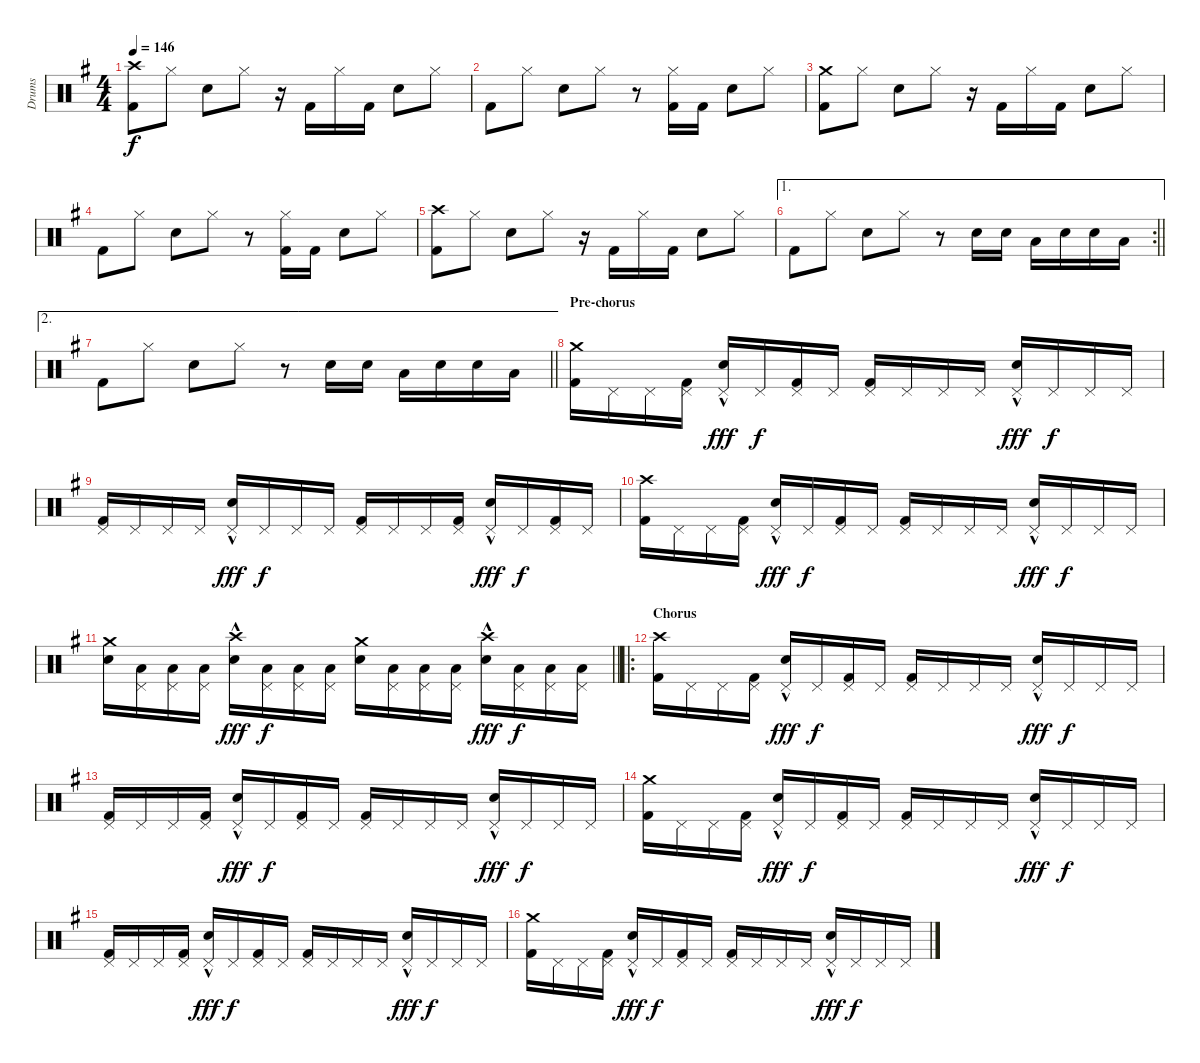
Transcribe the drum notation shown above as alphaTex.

\track ("Drums" "Drums") {instrument percussion}
\staff {score}
\articulation defaults
\ts (4 4)
\tempo 146
\clef neutral
\ks eminor
("Crash high (hit)" "Kick (hit) 2").8{dy f} "Hi-Hat (closed)".8 "Snare (hit) 2".8 "Hi-Hat (closed)".8 r.16 "Kick (hit) 2".16 "Hi-Hat (closed)".16 "Kick (hit) 2".16 "Snare (hit) 2".8 "Hi-Hat (closed)".8 |
"Kick (hit) 2".8 "Hi-Hat (closed)".8 "Snare (hit) 2".8 "Hi-Hat (closed)".8 r.8 ("Hi-Hat (closed)" "Kick (hit) 2").16 "Kick (hit) 2".16 "Snare (hit) 2".8 "Hi-Hat (closed)".8 |
("Crash medium (hit)" "Kick (hit) 2").8 "Hi-Hat (closed)".8 "Snare (hit) 2".8 "Hi-Hat (closed)".8 r.16 "Kick (hit) 2".16 "Hi-Hat (closed)".16 "Kick (hit) 2".16 "Snare (hit) 2".8 "Hi-Hat (closed)".8 |
"Kick (hit) 2".8 "Hi-Hat (closed)".8 "Snare (hit) 2".8 "Hi-Hat (closed)".8 r.8 ("Hi-Hat (closed)" "Kick (hit) 2").16 "Kick (hit) 2".16 "Snare (hit) 2".8 "Hi-Hat (closed)".8 |
("Crash high (hit)" "Kick (hit) 2").8 "Hi-Hat (closed)".8 "Snare (hit) 2".8 "Hi-Hat (closed)".8 r.16 "Kick (hit) 2".16 "Hi-Hat (closed)".16 "Kick (hit) 2".16 "Snare (hit) 2".8 "Hi-Hat (closed)".8 |
\ae 1
\rc 2
\barLineRight lightlight "Kick (hit) 2".8 "Hi-Hat (closed)".8 "Snare (hit) 2".8 "Hi-Hat (closed)".8
r.8 "Snare (hit) 2".16 "Snare (hit) 2".16 "Low Floor Tom (hit)".16 "Snare (hit) 2".16 "Snare (hit) 2".16 "Low Floor Tom (hit)".16 |
\ae 2
\barLineRight lightlight "Kick (hit) 2".8 "Hi-Hat (closed)".8 "Snare (hit) 2".8 "Hi-Hat (closed)".8
r.8 "Snare (hit) 2".16 "Snare (hit) 2".16 "Low Floor Tom (hit)".16 "Snare (hit) 2".16 "Snare (hit) 2".16 "Low Floor Tom (hit)".16 |
\section ("" "Pre-chorus")
("Crash medium (hit)" "Kick (hit) 2").16 "Pedal Hi-Hat (hit)".16 "Pedal Hi-Hat (hit)".16 ("Pedal Hi-Hat (hit)" "Kick (hit) 2").16 ("Pedal Hi-Hat (hit)"{hac} "Snare (hit) 2").16{dy fff} "Pedal Hi-Hat (hit)".16{dy f} ("Pedal Hi-Hat (hit)" "Kick (hit) 2").16 "Pedal Hi-Hat (hit)".16 ("Pedal Hi-Hat (hit)" "Kick (hit) 2").16 "Pedal Hi-Hat (hit)".16 "Pedal Hi-Hat (hit)".16 "Pedal Hi-Hat (hit)".16 ("Pedal Hi-Hat (hit)"{hac} "Snare (hit) 2").16{dy fff} "Pedal Hi-Hat (hit)".16{dy f} "Pedal Hi-Hat (hit)".16 "Pedal Hi-Hat (hit)".16 |
("Pedal Hi-Hat (hit)" "Kick (hit) 2").16 "Pedal Hi-Hat (hit)".16 "Pedal Hi-Hat (hit)".16 "Pedal Hi-Hat (hit)".16 ("Pedal Hi-Hat (hit)"{hac} "Snare (hit) 2").16{dy fff} "Pedal Hi-Hat (hit)".16{dy f} "Pedal Hi-Hat (hit)".16 "Pedal Hi-Hat (hit)".16 ("Pedal Hi-Hat (hit)" "Kick (hit) 2").16 "Pedal Hi-Hat (hit)".16 "Pedal Hi-Hat (hit)".16 ("Pedal Hi-Hat (hit)" "Kick (hit) 2").16 ("Pedal Hi-Hat (hit)"{hac} "Snare (hit) 2").16{dy fff} "Pedal Hi-Hat (hit)".16{dy f} ("Pedal Hi-Hat (hit)" "Kick (hit) 2").16 "Pedal Hi-Hat (hit)".16 |
("Crash high (hit)" "Kick (hit) 2").16 "Pedal Hi-Hat (hit)".16 "Pedal Hi-Hat (hit)".16 ("Pedal Hi-Hat (hit)" "Kick (hit) 2").16 ("Pedal Hi-Hat (hit)"{hac} "Snare (hit) 2").16{dy fff} "Pedal Hi-Hat (hit)".16{dy f} ("Pedal Hi-Hat (hit)" "Kick (hit) 2").16 "Pedal Hi-Hat (hit)".16 ("Pedal Hi-Hat (hit)" "Kick (hit) 2").16 "Pedal Hi-Hat (hit)".16 "Pedal Hi-Hat (hit)".16 "Pedal Hi-Hat (hit)".16 ("Pedal Hi-Hat (hit)"{hac} "Snare (hit) 2").16{dy fff} "Pedal Hi-Hat (hit)".16{dy f} "Pedal Hi-Hat (hit)".16 "Pedal Hi-Hat (hit)".16 |
\barLineRight lightlight
("Crash medium (hit)" "Snare (hit) 2").16 ("Pedal Hi-Hat (hit)" "Low Floor Tom (hit)").16 ("Pedal Hi-Hat (hit)" "Low Floor Tom (hit)").16 ("Pedal Hi-Hat (hit)" "Low Floor Tom (hit)").16 ("Crash high (hit)"{hac} "Snare (hit) 2").16{dy fff} ("Pedal Hi-Hat (hit)" "Low Floor Tom (hit)").16{dy f} ("Pedal Hi-Hat (hit)" "Low Floor Tom (hit)").16 ("Pedal Hi-Hat (hit)" "Low Floor Tom (hit)").16 ("Crash medium (hit)" "Snare (hit) 2").16 ("Pedal Hi-Hat (hit)" "Low Floor Tom (hit)").16 ("Pedal Hi-Hat (hit)" "Low Floor Tom (hit)").16 ("Pedal Hi-Hat (hit)" "Low Floor Tom (hit)").16 ("Crash high (hit)"{hac} "Snare (hit) 2").16{dy fff} ("Pedal Hi-Hat (hit)" "Low Floor Tom (hit)").16{dy f} ("Pedal Hi-Hat (hit)" "Low Floor Tom (hit)").16 ("Pedal Hi-Hat (hit)" "Low Floor Tom (hit)").16 |
\ro
\section ("" "Chorus")
("Crash high (hit)" "Kick (hit) 2").16 "Pedal Hi-Hat (hit)".16 "Pedal Hi-Hat (hit)".16 ("Pedal Hi-Hat (hit)" "Kick (hit) 2").16 ("Pedal Hi-Hat (hit)"{hac} "Snare (hit) 2").16{dy fff} "Pedal Hi-Hat (hit)".16{dy f} ("Pedal Hi-Hat (hit)" "Kick (hit) 2").16 "Pedal Hi-Hat (hit)".16 ("Pedal Hi-Hat (hit)" "Kick (hit) 2").16 "Pedal Hi-Hat (hit)".16 "Pedal Hi-Hat (hit)".16 "Pedal Hi-Hat (hit)".16 ("Pedal Hi-Hat (hit)"{hac} "Snare (hit) 2").16{dy fff} "Pedal Hi-Hat (hit)".16{dy f} "Pedal Hi-Hat (hit)".16 "Pedal Hi-Hat (hit)".16 |
("Pedal Hi-Hat (hit)" "Kick (hit) 2").16 "Pedal Hi-Hat (hit)".16 "Pedal Hi-Hat (hit)".16 ("Pedal Hi-Hat (hit)" "Kick (hit) 2").16 ("Pedal Hi-Hat (hit)"{hac} "Snare (hit) 2").16{dy fff} "Pedal Hi-Hat (hit)".16{dy f} ("Pedal Hi-Hat (hit)" "Kick (hit) 2").16 "Pedal Hi-Hat (hit)".16 ("Pedal Hi-Hat (hit)" "Kick (hit) 2").16 "Pedal Hi-Hat (hit)".16 "Pedal Hi-Hat (hit)".16 "Pedal Hi-Hat (hit)".16 ("Pedal Hi-Hat (hit)"{hac} "Snare (hit) 2").16{dy fff} "Pedal Hi-Hat (hit)".16{dy f} "Pedal Hi-Hat (hit)".16 "Pedal Hi-Hat (hit)".16 |
("Crash medium (hit)" "Kick (hit) 2").16 "Pedal Hi-Hat (hit)".16 "Pedal Hi-Hat (hit)".16 ("Pedal Hi-Hat (hit)" "Kick (hit) 2").16 ("Pedal Hi-Hat (hit)"{hac} "Snare (hit) 2").16{dy fff} "Pedal Hi-Hat (hit)".16{dy f} ("Pedal Hi-Hat (hit)" "Kick (hit) 2").16 "Pedal Hi-Hat (hit)".16 ("Pedal Hi-Hat (hit)" "Kick (hit) 2").16 "Pedal Hi-Hat (hit)".16 "Pedal Hi-Hat (hit)".16 "Pedal Hi-Hat (hit)".16 ("Pedal Hi-Hat (hit)"{hac} "Snare (hit) 2").16{dy fff} "Pedal Hi-Hat (hit)".16{dy f} "Pedal Hi-Hat (hit)".16 "Pedal Hi-Hat (hit)".16 |
("Pedal Hi-Hat (hit)" "Kick (hit) 2").16 "Pedal Hi-Hat (hit)".16 "Pedal Hi-Hat (hit)".16 ("Pedal Hi-Hat (hit)" "Kick (hit) 2").16 ("Pedal Hi-Hat (hit)"{hac} "Snare (hit) 2").16{dy fff} "Pedal Hi-Hat (hit)".16{dy f} ("Pedal Hi-Hat (hit)" "Kick (hit) 2").16 "Pedal Hi-Hat (hit)".16 ("Pedal Hi-Hat (hit)" "Kick (hit) 2").16 "Pedal Hi-Hat (hit)".16 "Pedal Hi-Hat (hit)".16 "Pedal Hi-Hat (hit)".16 ("Pedal Hi-Hat (hit)"{hac} "Snare (hit) 2").16{dy fff} "Pedal Hi-Hat (hit)".16{dy f} "Pedal Hi-Hat (hit)".16 "Pedal Hi-Hat (hit)".16 |
("Crash medium (hit)" "Kick (hit) 2").16 "Pedal Hi-Hat (hit)".16 "Pedal Hi-Hat (hit)".16 ("Pedal Hi-Hat (hit)" "Kick (hit) 2").16 ("Pedal Hi-Hat (hit)"{hac} "Snare (hit) 2").16{dy fff} "Pedal Hi-Hat (hit)".16{dy f} ("Pedal Hi-Hat (hit)" "Kick (hit) 2").16 "Pedal Hi-Hat (hit)".16 ("Pedal Hi-Hat (hit)" "Kick (hit) 2").16 "Pedal Hi-Hat (hit)".16 "Pedal Hi-Hat (hit)".16 "Pedal Hi-Hat (hit)".16 ("Pedal Hi-Hat (hit)"{hac} "Snare (hit) 2").16{dy fff} "Pedal Hi-Hat (hit)".16{dy f} "Pedal Hi-Hat (hit)".16 "Pedal Hi-Hat (hit)".16
